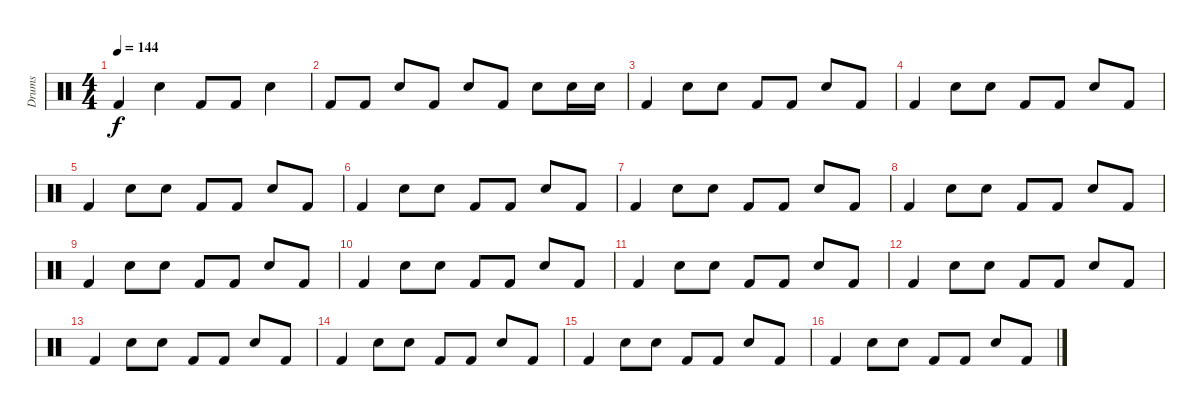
\track ("Drums" "Drums") {instrument percussion}
\staff {score}
\articulation defaults
\ts (4 4)
\tempo 144
\clef neutral
\ks c "Kick (hit) 2".4{dy f} "Electric Snare (hit)".4 "Kick (hit) 2".8 "Kick (hit) 2".8 "Electric Snare (hit)".4
|
"Kick (hit) 2".8 "Kick (hit) 2".8 "Electric Snare (hit)".8 "Kick (hit) 2".8 "Electric Snare (hit)".8 "Kick (hit) 2".8 "Electric Snare (hit)".8 "Electric Snare (hit)".16 "Electric Snare (hit)".16 |
"Kick (hit) 2".4 "Electric Snare (hit)".8 "Electric Snare (hit)".8 "Kick (hit) 2".8 "Kick (hit) 2".8 "Electric Snare (hit)".8 "Kick (hit) 2".8 |
"Kick (hit) 2".4 "Electric Snare (hit)".8 "Electric Snare (hit)".8 "Kick (hit) 2".8 "Kick (hit) 2".8 "Electric Snare (hit)".8 "Kick (hit) 2".8 |
"Kick (hit) 2".4 "Electric Snare (hit)".8 "Electric Snare (hit)".8 "Kick (hit) 2".8 "Kick (hit) 2".8 "Electric Snare (hit)".8 "Kick (hit) 2".8 |
"Kick (hit) 2".4 "Electric Snare (hit)".8 "Electric Snare (hit)".8 "Kick (hit) 2".8 "Kick (hit) 2".8 "Electric Snare (hit)".8 "Kick (hit) 2".8 |
"Kick (hit) 2".4 "Electric Snare (hit)".8 "Electric Snare (hit)".8 "Kick (hit) 2".8 "Kick (hit) 2".8 "Electric Snare (hit)".8 "Kick (hit) 2".8 |
"Kick (hit) 2".4 "Electric Snare (hit)".8 "Electric Snare (hit)".8 "Kick (hit) 2".8 "Kick (hit) 2".8 "Electric Snare (hit)".8 "Kick (hit) 2".8 |
"Kick (hit) 2".4 "Electric Snare (hit)".8 "Electric Snare (hit)".8 "Kick (hit) 2".8 "Kick (hit) 2".8 "Electric Snare (hit)".8 "Kick (hit) 2".8 |
"Kick (hit) 2".4 "Electric Snare (hit)".8 "Electric Snare (hit)".8 "Kick (hit) 2".8 "Kick (hit) 2".8 "Electric Snare (hit)".8 "Kick (hit) 2".8 |
"Kick (hit) 2".4 "Electric Snare (hit)".8 "Electric Snare (hit)".8 "Kick (hit) 2".8 "Kick (hit) 2".8 "Electric Snare (hit)".8 "Kick (hit) 2".8 |
"Kick (hit) 2".4 "Electric Snare (hit)".8 "Electric Snare (hit)".8 "Kick (hit) 2".8 "Kick (hit) 2".8 "Electric Snare (hit)".8 "Kick (hit) 2".8 |
"Kick (hit) 2".4 "Electric Snare (hit)".8 "Electric Snare (hit)".8 "Kick (hit) 2".8 "Kick (hit) 2".8 "Electric Snare (hit)".8 "Kick (hit) 2".8 |
"Kick (hit) 2".4 "Electric Snare (hit)".8 "Electric Snare (hit)".8 "Kick (hit) 2".8 "Kick (hit) 2".8 "Electric Snare (hit)".8 "Kick (hit) 2".8 |
"Kick (hit) 2".4 "Electric Snare (hit)".8 "Electric Snare (hit)".8 "Kick (hit) 2".8 "Kick (hit) 2".8 "Electric Snare (hit)".8 "Kick (hit) 2".8 |
"Kick (hit) 2".4 "Electric Snare (hit)".8 "Electric Snare (hit)".8 "Kick (hit) 2".8 "Kick (hit) 2".8 "Electric Snare (hit)".8 "Kick (hit) 2".8
